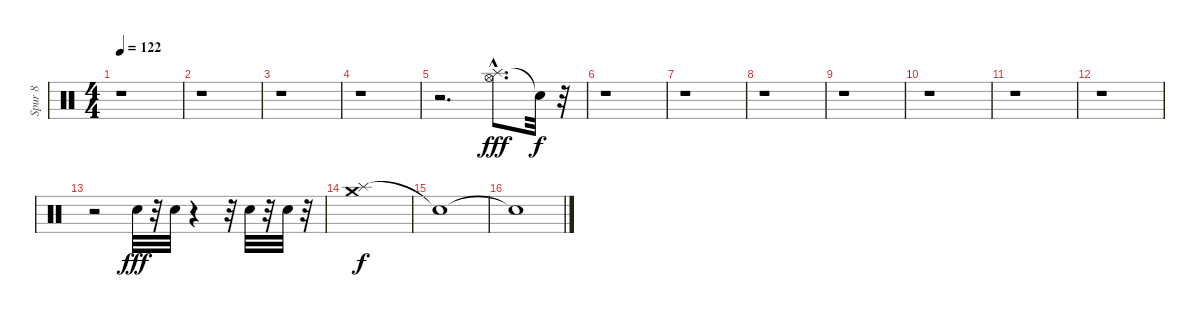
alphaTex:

\track ("Spur 8" "Spur 8") {instrument percussion}
\staff {score}
\articulation defaults
\ts (4 4)
\tempo 122
\clef neutral
\ks c
r.1{dy fff} |
r.1 |
r.1 |
r.1 |
r.2{d} ("Splash (hit)"{hac} "Hi-Hat (open)"{hac}).8{d} "Snare (hit)"{t}.32{dy f} r.32 |
r.1 |
r.1 |
r.1 |
r.1 |
r.1 |
r.1 |
r.1 |
r.2 "Metronome (bell)".32{dy fff} r.32 "Metronome (bell)".32 r.4 r.32 "Metronome (bell)".32 r.32 "Metronome (bell)".32 r.32 |
("Splash (hit)" "Crash medium (hit)").1{dy f} |
"Snare (hit)"{t}.1 |
"Snare (hit)"{t}.1
